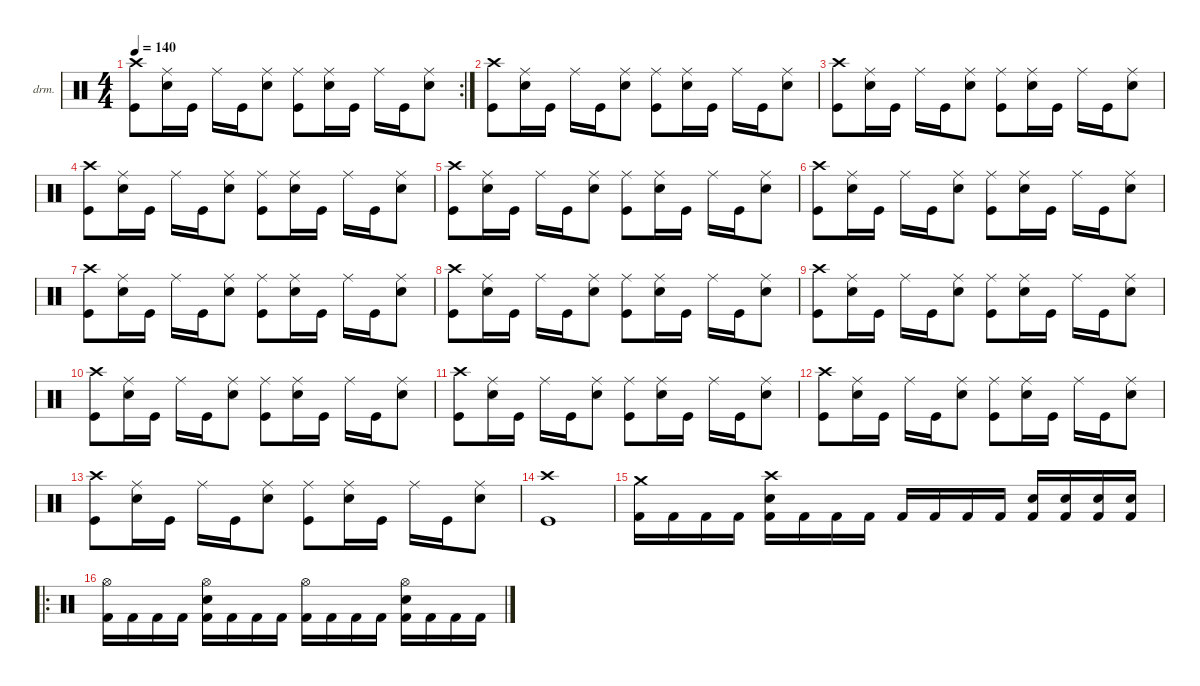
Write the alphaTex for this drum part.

\defaultSystemsLayout 4
\hideDynamics
\bracketExtendMode nobrackets
\firstSystemTrackNameOrientation horizontal
\otherSystemsTrackNameOrientation horizontal
\track ("Drumkit" "drm.") {instrument percussion}
\staff {score}
\articulation defaults
\rc 2
\ts (4 4)
\tempo 140
\clef neutral
\ks c
("Crash high (hit)" "Kick (hit)").8{dy f} ("Ride (middle)" "Snare (hit) 2").16 "Kick (hit)".16 "Ride (middle)".16 "Kick (hit)".16 ("Ride (middle)" "Snare (hit) 2").8 ("Ride (middle)" "Kick (hit)").8 ("Ride (middle)" "Snare (hit) 2").16 "Kick (hit)".16 "Ride (middle)".16 "Kick (hit)".16 ("Ride (middle)" "Snare (hit) 2").8 |
("Crash high (hit)" "Kick (hit)").8 ("Ride (middle)" "Snare (hit) 2").16 "Kick (hit)".16 "Ride (middle)".16 "Kick (hit)".16 ("Ride (middle)" "Snare (hit) 2").8 ("Ride (middle)" "Kick (hit)").8 ("Ride (middle)" "Snare (hit) 2").16 "Kick (hit)".16 "Ride (middle)".16 "Kick (hit)".16 ("Ride (middle)" "Snare (hit) 2").8 |
("Crash high (hit)" "Kick (hit)").8 ("Ride (middle)" "Snare (hit) 2").16 "Kick (hit)".16 "Ride (middle)".16 "Kick (hit)".16 ("Ride (middle)" "Snare (hit) 2").8 ("Ride (middle)" "Kick (hit)").8 ("Ride (middle)" "Snare (hit) 2").16 "Kick (hit)".16 "Ride (middle)".16 "Kick (hit)".16 ("Ride (middle)" "Snare (hit) 2").8 |
("Crash high (hit)" "Kick (hit)").8 ("Ride (middle)" "Snare (hit) 2").16 "Kick (hit)".16 "Ride (middle)".16 "Kick (hit)".16 ("Ride (middle)" "Snare (hit) 2").8 ("Ride (middle)" "Kick (hit)").8 ("Ride (middle)" "Snare (hit) 2").16 "Kick (hit)".16 "Ride (middle)".16 "Kick (hit)".16 ("Ride (middle)" "Snare (hit) 2").8 |
("Crash high (hit)" "Kick (hit)").8 ("Ride (middle)" "Snare (hit) 2").16 "Kick (hit)".16 "Ride (middle)".16 "Kick (hit)".16 ("Ride (middle)" "Snare (hit) 2").8 ("Ride (middle)" "Kick (hit)").8 ("Ride (middle)" "Snare (hit) 2").16 "Kick (hit)".16 "Ride (middle)".16 "Kick (hit)".16 ("Ride (middle)" "Snare (hit) 2").8 |
("Crash high (hit)" "Kick (hit)").8 ("Ride (middle)" "Snare (hit) 2").16 "Kick (hit)".16 "Ride (middle)".16 "Kick (hit)".16 ("Ride (middle)" "Snare (hit) 2").8 ("Ride (middle)" "Kick (hit)").8 ("Ride (middle)" "Snare (hit) 2").16 "Kick (hit)".16 "Ride (middle)".16 "Kick (hit)".16 ("Ride (middle)" "Snare (hit) 2").8 |
("Crash high (hit)" "Kick (hit)").8 ("Ride (middle)" "Snare (hit) 2").16 "Kick (hit)".16 "Ride (middle)".16 "Kick (hit)".16 ("Ride (middle)" "Snare (hit) 2").8 ("Ride (middle)" "Kick (hit)").8 ("Ride (middle)" "Snare (hit) 2").16 "Kick (hit)".16 "Ride (middle)".16 "Kick (hit)".16 ("Ride (middle)" "Snare (hit) 2").8 |
("Crash high (hit)" "Kick (hit)").8 ("Ride (middle)" "Snare (hit) 2").16 "Kick (hit)".16 "Ride (middle)".16 "Kick (hit)".16 ("Ride (middle)" "Snare (hit) 2").8 ("Ride (middle)" "Kick (hit)").8 ("Ride (middle)" "Snare (hit) 2").16 "Kick (hit)".16 "Ride (middle)".16 "Kick (hit)".16 ("Ride (middle)" "Snare (hit) 2").8 |
("Crash high (hit)" "Kick (hit)").8 ("Ride (middle)" "Snare (hit) 2").16 "Kick (hit)".16 "Ride (middle)".16 "Kick (hit)".16 ("Ride (middle)" "Snare (hit) 2").8 ("Ride (middle)" "Kick (hit)").8 ("Ride (middle)" "Snare (hit) 2").16 "Kick (hit)".16 "Ride (middle)".16 "Kick (hit)".16 ("Ride (middle)" "Snare (hit) 2").8 |
("Crash high (hit)" "Kick (hit)").8 ("Ride (middle)" "Snare (hit) 2").16 "Kick (hit)".16 "Ride (middle)".16 "Kick (hit)".16 ("Ride (middle)" "Snare (hit) 2").8 ("Ride (middle)" "Kick (hit)").8 ("Ride (middle)" "Snare (hit) 2").16 "Kick (hit)".16 "Ride (middle)".16 "Kick (hit)".16 ("Ride (middle)" "Snare (hit) 2").8 |
("Crash high (hit)" "Kick (hit)").8 ("Ride (middle)" "Snare (hit) 2").16 "Kick (hit)".16 "Ride (middle)".16 "Kick (hit)".16 ("Ride (middle)" "Snare (hit) 2").8 ("Ride (middle)" "Kick (hit)").8 ("Ride (middle)" "Snare (hit) 2").16 "Kick (hit)".16 "Ride (middle)".16 "Kick (hit)".16 ("Ride (middle)" "Snare (hit) 2").8 |
("Crash high (hit)" "Kick (hit)").8 ("Ride (middle)" "Snare (hit) 2").16 "Kick (hit)".16 "Ride (middle)".16 "Kick (hit)".16 ("Ride (middle)" "Snare (hit) 2").8 ("Ride (middle)" "Kick (hit)").8 ("Ride (middle)" "Snare (hit) 2").16 "Kick (hit)".16 "Ride (middle)".16 "Kick (hit)".16 ("Ride (middle)" "Snare (hit) 2").8 |
("Crash high (hit)" "Kick (hit)").8 ("Ride (middle)" "Snare (hit) 2").16 "Kick (hit)".16 "Ride (middle)".16 "Kick (hit)".16 ("Ride (middle)" "Snare (hit) 2").8 ("Ride (middle)" "Kick (hit)").8 ("Ride (middle)" "Snare (hit) 2").16 "Kick (hit)".16 "Ride (middle)".16 "Kick (hit)".16 ("Ride (middle)" "Snare (hit) 2").8 |
("Crash high (hit)" "Kick (hit)").1{dy mf} |
("Crash medium (hit)" "Kick (hit) 2").16{dy f} "Kick (hit) 2".16 "Kick (hit) 2".16 "Kick (hit) 2".16 ("Crash high (hit)" "Snare (hit) 2" "Kick (hit) 2").16 "Kick (hit) 2".16 "Kick (hit) 2".16 "Kick (hit) 2".16 "Kick (hit) 2".16 "Kick (hit) 2".16 "Kick (hit) 2".16 "Kick (hit) 2".16 ("Snare (hit) 2" "Kick (hit) 2").16 ("Snare (hit) 2" "Kick (hit) 2").16 ("Snare (hit) 2" "Kick (hit) 2").16 ("Snare (hit) 2" "Kick (hit) 2").16 |
\ro
("Hi-Hat (open)" "Kick (hit) 2").16{dy ff} "Kick (hit) 2".16 "Kick (hit) 2".16 "Kick (hit) 2".16 ("Hi-Hat (open)" "Snare (hit) 2" "Kick (hit) 2").16 "Kick (hit) 2".16 "Kick (hit) 2".16 "Kick (hit) 2".16 ("Hi-Hat (open)" "Kick (hit) 2").16 "Kick (hit) 2".16 "Kick (hit) 2".16 "Kick (hit) 2".16 ("Hi-Hat (open)" "Snare (hit) 2" "Kick (hit) 2").16 "Kick (hit) 2".16 "Kick (hit) 2".16 "Kick (hit) 2".16
